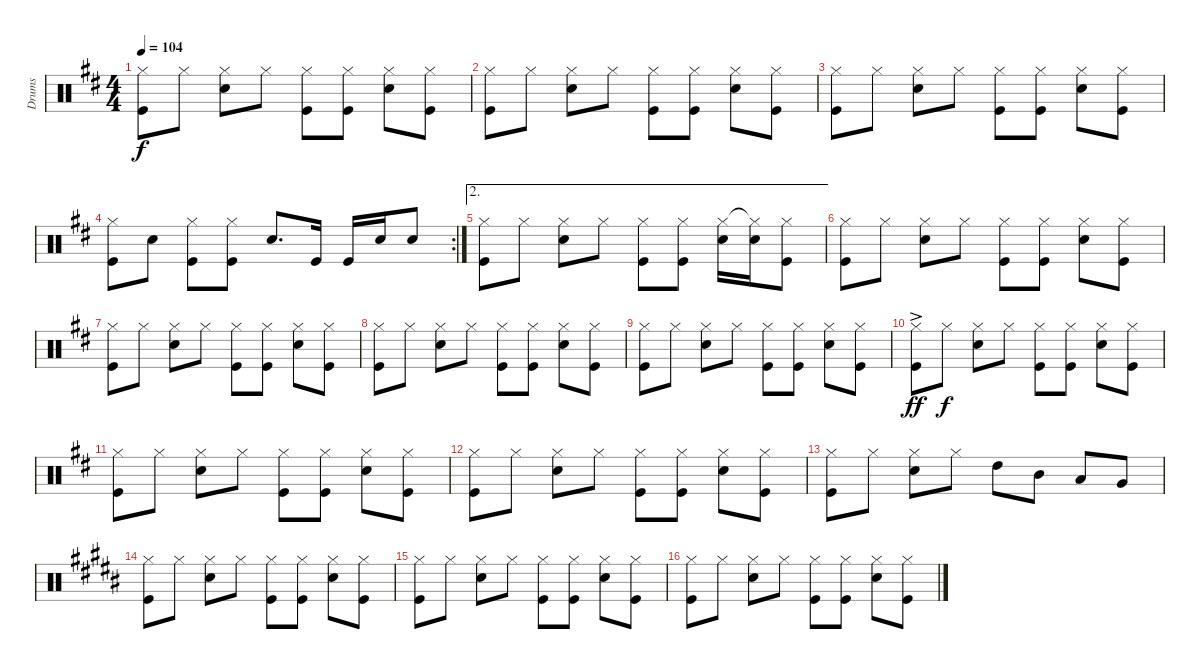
\track ("Drums" "Drums") {instrument percussion}
\staff {score}
\articulation defaults
\ts (4 4)
\tempo 104
\clef neutral
\ks d
("Hi-Hat (closed)" "Kick (hit)").8{dy f} "Hi-Hat (closed)".8 ("Hi-Hat (closed)" "Snare (hit) 2").8 "Hi-Hat (closed)".8 ("Hi-Hat (closed)" "Kick (hit)").8 ("Hi-Hat (closed)" "Kick (hit)").8 ("Hi-Hat (closed)" "Snare (hit) 2").8 ("Hi-Hat (closed)" "Kick (hit)").8 |
("Hi-Hat (closed)" "Kick (hit)").8 "Hi-Hat (closed)".8 ("Hi-Hat (closed)" "Snare (hit) 2").8 "Hi-Hat (closed)".8 ("Hi-Hat (closed)" "Kick (hit)").8 ("Hi-Hat (closed)" "Kick (hit)").8 ("Hi-Hat (closed)" "Snare (hit) 2").8 ("Hi-Hat (closed)" "Kick (hit)").8 |
("Hi-Hat (closed)" "Kick (hit)").8 "Hi-Hat (closed)".8 ("Hi-Hat (closed)" "Snare (hit) 2").8 "Hi-Hat (closed)".8 ("Hi-Hat (closed)" "Kick (hit)").8 ("Hi-Hat (closed)" "Kick (hit)").8 ("Hi-Hat (closed)" "Snare (hit) 2").8 ("Hi-Hat (closed)" "Kick (hit)").8 |
\rc 2
("Hi-Hat (closed)" "Kick (hit)").8 "Snare (hit) 2".8 ("Hi-Hat (closed)" "Kick (hit)").8 ("Hi-Hat (closed)" "Kick (hit)").8 "Snare (hit) 2".8{d} "Kick (hit)".16 "Kick (hit)".16 "Snare (hit) 2".16 "Snare (hit) 2".8 |
\ae 2
("Hi-Hat (closed)" "Kick (hit)").8 "Hi-Hat (closed)".8 ("Hi-Hat (closed)" "Snare (hit) 2").8 "Hi-Hat (closed)".8 ("Hi-Hat (closed)" "Kick (hit)").8 ("Hi-Hat (closed)" "Kick (hit)").8 ("Hi-Hat (closed)" "Snare (hit) 2").16 ("Hi-Hat (closed)"{t} "Snare (hit) 2").16 ("Hi-Hat (closed)" "Kick (hit)").8 |
("Hi-Hat (closed)" "Kick (hit)").8 "Hi-Hat (closed)".8 ("Hi-Hat (closed)" "Snare (hit) 2").8 "Hi-Hat (closed)".8 ("Hi-Hat (closed)" "Kick (hit)").8 ("Hi-Hat (closed)" "Kick (hit)").8 ("Hi-Hat (closed)" "Snare (hit) 2").8 ("Hi-Hat (closed)" "Kick (hit)").8 |
("Hi-Hat (closed)" "Kick (hit)").8 "Hi-Hat (closed)".8 ("Hi-Hat (closed)" "Snare (hit) 2").8 "Hi-Hat (closed)".8 ("Hi-Hat (closed)" "Kick (hit)").8 ("Hi-Hat (closed)" "Kick (hit)").8 ("Hi-Hat (closed)" "Snare (hit) 2").8 ("Hi-Hat (closed)" "Kick (hit)").8 |
("Hi-Hat (closed)" "Kick (hit)").8 "Hi-Hat (closed)".8 ("Hi-Hat (closed)" "Snare (hit) 2").8 "Hi-Hat (closed)".8 ("Hi-Hat (closed)" "Kick (hit)").8 ("Hi-Hat (closed)" "Kick (hit)").8 ("Hi-Hat (closed)" "Snare (hit) 2").8 ("Hi-Hat (closed)" "Kick (hit)").8 |
("Hi-Hat (closed)" "Kick (hit)").8 "Hi-Hat (closed)".8 ("Hi-Hat (closed)" "Snare (hit) 2").8 "Hi-Hat (closed)".8 ("Hi-Hat (closed)" "Kick (hit)").8 ("Hi-Hat (closed)" "Kick (hit)").8 ("Hi-Hat (closed)" "Snare (hit) 2").8 ("Hi-Hat (closed)" "Kick (hit)").8 |
("Hi-Hat (closed)"{ac} "Kick (hit)").8{dy ff} "Hi-Hat (closed)".8{dy f} ("Hi-Hat (closed)" "Snare (hit) 2").8 "Hi-Hat (closed)".8 ("Hi-Hat (closed)" "Kick (hit)").8 ("Hi-Hat (closed)" "Kick (hit)").8 ("Hi-Hat (closed)" "Snare (hit) 2").8 ("Hi-Hat (closed)" "Kick (hit)").8 |
("Hi-Hat (closed)" "Kick (hit)").8 "Hi-Hat (closed)".8 ("Hi-Hat (closed)" "Snare (hit) 2").8 "Hi-Hat (closed)".8 ("Hi-Hat (closed)" "Kick (hit)").8 ("Hi-Hat (closed)" "Kick (hit)").8 ("Hi-Hat (closed)" "Snare (hit) 2").8 ("Hi-Hat (closed)" "Kick (hit)").8 |
("Hi-Hat (closed)" "Kick (hit)").8 "Hi-Hat (closed)".8 ("Hi-Hat (closed)" "Snare (hit) 2").8 "Hi-Hat (closed)".8 ("Hi-Hat (closed)" "Kick (hit)").8 ("Hi-Hat (closed)" "Kick (hit)").8 ("Hi-Hat (closed)" "Snare (hit) 2").8 ("Hi-Hat (closed)" "Kick (hit)").8 |
("Hi-Hat (closed)" "Kick (hit)").8 "Hi-Hat (closed)".8 ("Hi-Hat (closed)" "Snare (hit) 2").8 "Hi-Hat (closed)".8 "High Tom (hit)".8 "Mid Tom (hit)".8 "Low Tom (hit)".8 "Very Low Tom (hit)".8 |
\ks b
("Hi-Hat (closed)" "Kick (hit)").8 "Hi-Hat (closed)".8 ("Hi-Hat (closed)" "Snare (hit) 2").8 "Hi-Hat (closed)".8 ("Hi-Hat (closed)" "Kick (hit)").8 ("Hi-Hat (closed)" "Kick (hit)").8 ("Hi-Hat (closed)" "Snare (hit) 2").8 ("Hi-Hat (closed)" "Kick (hit)").8 |
("Hi-Hat (closed)" "Kick (hit)").8 "Hi-Hat (closed)".8 ("Hi-Hat (closed)" "Snare (hit) 2").8 "Hi-Hat (closed)".8 ("Hi-Hat (closed)" "Kick (hit)").8 ("Hi-Hat (closed)" "Kick (hit)").8 ("Hi-Hat (closed)" "Snare (hit) 2").8 ("Hi-Hat (closed)" "Kick (hit)").8 |
("Hi-Hat (closed)" "Kick (hit)").8 "Hi-Hat (closed)".8 ("Hi-Hat (closed)" "Snare (hit) 2").8 "Hi-Hat (closed)".8 ("Hi-Hat (closed)" "Kick (hit)").8 ("Hi-Hat (closed)" "Kick (hit)").8 ("Hi-Hat (closed)" "Snare (hit) 2").8 ("Hi-Hat (closed)" "Kick (hit)").8
